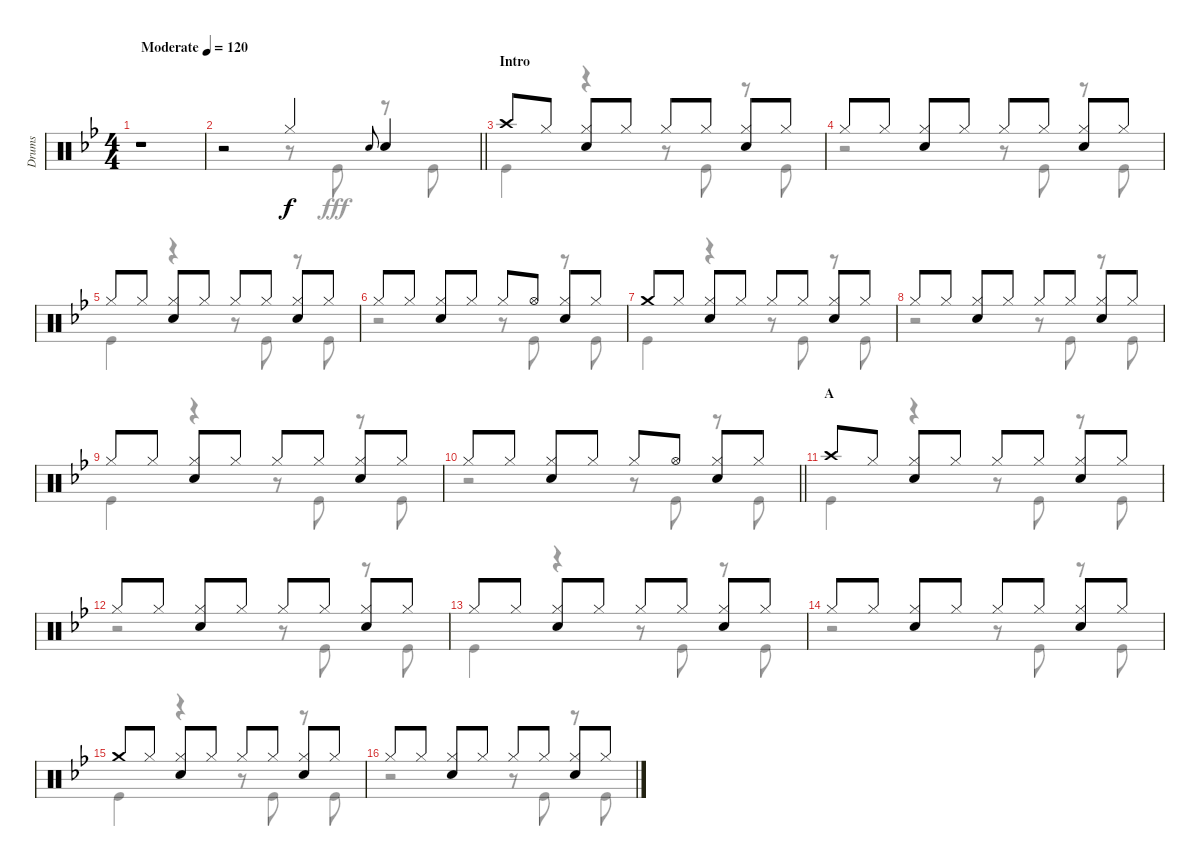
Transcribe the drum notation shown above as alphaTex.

\track ("Drums" "Drums") {instrument percussion}
\staff {score}
\articulation defaults
\voice
\ts (4 4)
\tempo (120 "Moderate")
\clef neutral
\ks bb
r.1{dy f} |
\barLineRight lightlight
r.2 "Hi-Hat (closed)".4 "Snare (hit) 2".8{gr onbeat} "Snare (hit) 2".4 |
\section ("" "Intro")
"Crash high (hit)".8 "Hi-Hat (closed)".8 ("Hi-Hat (closed)" "Snare (hit) 2").8 "Hi-Hat (closed)".8 "Hi-Hat (closed)".8 "Hi-Hat (closed)".8 ("Hi-Hat (closed)" "Snare (hit) 2").8 "Hi-Hat (closed)".8 |
"Hi-Hat (closed)".8 "Hi-Hat (closed)".8 ("Hi-Hat (closed)" "Snare (hit) 2").8 "Hi-Hat (closed)".8 "Hi-Hat (closed)".8 "Hi-Hat (closed)".8 ("Hi-Hat (closed)" "Snare (hit) 2").8 "Hi-Hat (closed)".8 |
"Hi-Hat (closed)".8 "Hi-Hat (closed)".8 ("Hi-Hat (closed)" "Snare (hit) 2").8 "Hi-Hat (closed)".8 "Hi-Hat (closed)".8 "Hi-Hat (closed)".8 ("Hi-Hat (closed)" "Snare (hit) 2").8 "Hi-Hat (closed)".8 |
"Hi-Hat (closed)".8 "Hi-Hat (closed)".8 ("Hi-Hat (closed)" "Snare (hit) 2").8 "Hi-Hat (closed)".8 "Hi-Hat (closed)".8 "Hi-Hat (open)".8 ("Hi-Hat (closed)" "Snare (hit) 2").8 "Hi-Hat (closed)".8 |
"Crash medium (hit)".8 "Hi-Hat (closed)".8 ("Hi-Hat (closed)" "Snare (hit) 2").8 "Hi-Hat (closed)".8 "Hi-Hat (closed)".8 "Hi-Hat (closed)".8 ("Hi-Hat (closed)" "Snare (hit) 2").8 "Hi-Hat (closed)".8 |
"Hi-Hat (closed)".8 "Hi-Hat (closed)".8 ("Hi-Hat (closed)" "Snare (hit) 2").8 "Hi-Hat (closed)".8 "Hi-Hat (closed)".8 "Hi-Hat (closed)".8 ("Hi-Hat (closed)" "Snare (hit) 2").8 "Hi-Hat (closed)".8 |
"Hi-Hat (closed)".8 "Hi-Hat (closed)".8 ("Hi-Hat (closed)" "Snare (hit) 2").8 "Hi-Hat (closed)".8 "Hi-Hat (closed)".8 "Hi-Hat (closed)".8 ("Hi-Hat (closed)" "Snare (hit) 2").8 "Hi-Hat (closed)".8 |
\barLineRight lightlight "Hi-Hat (closed)".8 "Hi-Hat (closed)".8
("Hi-Hat (closed)" "Snare (hit) 2").8 "Hi-Hat (closed)".8 "Hi-Hat (closed)".8 "Hi-Hat (open)".8 ("Hi-Hat (closed)" "Snare (hit) 2").8 "Hi-Hat (closed)".8 |
\section ("" "A")
"Crash high (hit)".8 "Hi-Hat (closed)".8 ("Hi-Hat (closed)" "Snare (hit) 2").8 "Hi-Hat (closed)".8 "Hi-Hat (closed)".8 "Hi-Hat (closed)".8 ("Hi-Hat (closed)" "Snare (hit) 2").8 "Hi-Hat (closed)".8 |
"Hi-Hat (closed)".8 "Hi-Hat (closed)".8 ("Hi-Hat (closed)" "Snare (hit) 2").8 "Hi-Hat (closed)".8 "Hi-Hat (closed)".8 "Hi-Hat (closed)".8 ("Hi-Hat (closed)" "Snare (hit) 2").8 "Hi-Hat (closed)".8 |
"Hi-Hat (closed)".8 "Hi-Hat (closed)".8 ("Hi-Hat (closed)" "Snare (hit) 2").8 "Hi-Hat (closed)".8 "Hi-Hat (closed)".8 "Hi-Hat (closed)".8 ("Hi-Hat (closed)" "Snare (hit) 2").8 "Hi-Hat (closed)".8 |
"Hi-Hat (closed)".8 "Hi-Hat (closed)".8 ("Hi-Hat (closed)" "Snare (hit) 2").8 "Hi-Hat (closed)".8 "Hi-Hat (closed)".8 "Hi-Hat (closed)".8 ("Hi-Hat (closed)" "Snare (hit) 2").8 "Hi-Hat (closed)".8 |
"Crash medium (hit)".8 "Hi-Hat (closed)".8 ("Hi-Hat (closed)" "Snare (hit) 2").8 "Hi-Hat (closed)".8 "Hi-Hat (closed)".8 "Hi-Hat (closed)".8 ("Hi-Hat (closed)" "Snare (hit) 2").8 "Hi-Hat (closed)".8 |
"Hi-Hat (closed)".8 "Hi-Hat (closed)".8 ("Hi-Hat (closed)" "Snare (hit) 2").8 "Hi-Hat (closed)".8 "Hi-Hat (closed)".8 "Hi-Hat (closed)".8 ("Hi-Hat (closed)" "Snare (hit) 2").8 "Hi-Hat (closed)".8
\voice
\clef neutral
\ottava regular
\simile none
\ks bb
r.1{dy fff} |
\barLineRight lightlight
r.2 r.8 "Kick (hit)".8 r.8 "Kick (hit)".8 |
"Kick (hit)".4 r.4 r.8 "Kick (hit)".8 r.8 "Kick (hit)".8 |
r.2 r.8 "Kick (hit)".8 r.8 "Kick (hit)".8 |
"Kick (hit)".4 r.4 r.8 "Kick (hit)".8 r.8 "Kick (hit)".8 |
r.2 r.8 "Kick (hit)".8 r.8 "Kick (hit)".8 |
"Kick (hit)".4 r.4 r.8 "Kick (hit)".8 r.8 "Kick (hit)".8 |
r.2 r.8 "Kick (hit)".8 r.8 "Kick (hit)".8 |
"Kick (hit)".4 r.4 r.8 "Kick (hit)".8 r.8 "Kick (hit)".8 |
\barLineRight lightlight
r.2 r.8 "Kick (hit)".8 r.8 "Kick (hit)".8 |
"Kick (hit)".4 r.4 r.8 "Kick (hit)".8 r.8 "Kick (hit)".8 |
r.2 r.8 "Kick (hit)".8 r.8 "Kick (hit)".8 |
"Kick (hit)".4 r.4 r.8 "Kick (hit)".8 r.8 "Kick (hit)".8 |
r.2 r.8 "Kick (hit)".8 r.8 "Kick (hit)".8 |
"Kick (hit)".4 r.4 r.8 "Kick (hit)".8 r.8 "Kick (hit)".8 |
r.2 r.8 "Kick (hit)".8 r.8 "Kick (hit)".8
